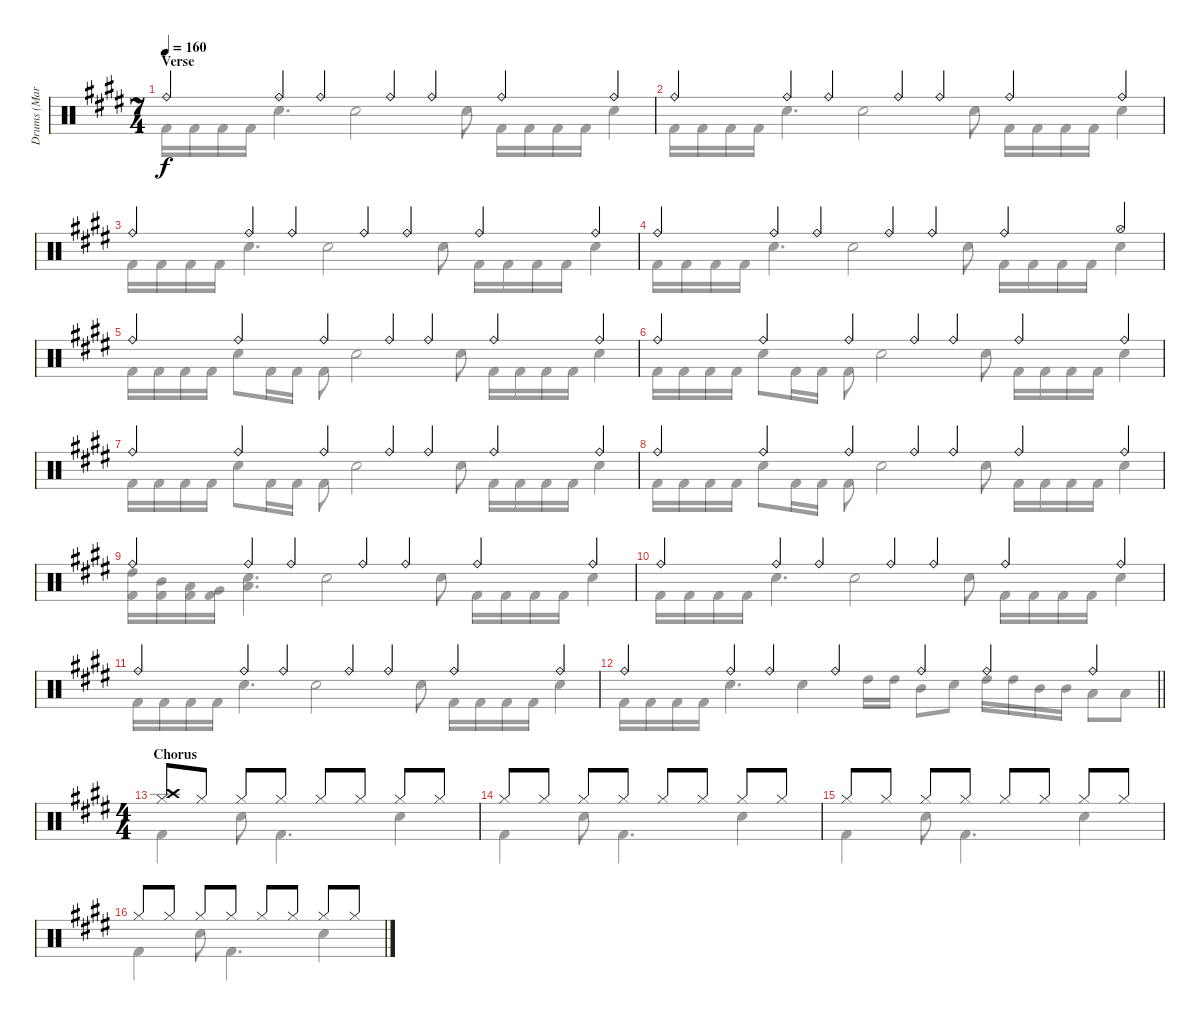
\track ("Drums (Mark Zonder)" "Drums (Mar") {instrument percussion}
\staff {score}
\articulation defaults
\voice
\ts (7 4)
\section ("" "Verse")
\tempo 160
\clef neutral
\ks c#minor "Ride (bell)".4{dy f} "Ride (bell)".4 "Ride (bell)".4 "Ride (bell)".4 "Ride (bell)".4 "Ride (bell)".4 "Ride (bell)".4
|
"Ride (bell)".4 "Ride (bell)".4 "Ride (bell)".4 "Ride (bell)".4 "Ride (bell)".4 "Ride (bell)".4 "Ride (bell)".4 |
"Ride (bell)".4 "Ride (bell)".4 "Ride (bell)".4 "Ride (bell)".4 "Ride (bell)".4 "Ride (bell)".4 "Ride (bell)".4 |
"Ride (bell)".4 "Ride (bell)".4 "Ride (bell)".4 "Ride (bell)".4 "Ride (bell)".4 "Ride (bell)".4 "Hi-Hat (open)".4 |
"Ride (bell)".4 "Ride (bell)".4 "Ride (bell)".4 "Ride (bell)".4 "Ride (bell)".4 "Ride (bell)".4 "Ride (bell)".4 |
"Ride (bell)".4 "Ride (bell)".4 "Ride (bell)".4 "Ride (bell)".4 "Ride (bell)".4 "Ride (bell)".4 "Ride (bell)".4 |
"Ride (bell)".4 "Ride (bell)".4 "Ride (bell)".4 "Ride (bell)".4 "Ride (bell)".4 "Ride (bell)".4 "Ride (bell)".4 |
"Ride (bell)".4 "Ride (bell)".4 "Ride (bell)".4 "Ride (bell)".4 "Ride (bell)".4 "Ride (bell)".4 "Ride (bell)".4 |
"Ride (bell)".4 "Ride (bell)".4 "Ride (bell)".4 "Ride (bell)".4 "Ride (bell)".4 "Ride (bell)".4 "Ride (bell)".4 |
"Ride (bell)".4 "Ride (bell)".4 "Ride (bell)".4 "Ride (bell)".4 "Ride (bell)".4 "Ride (bell)".4 "Ride (bell)".4 |
"Ride (bell)".4 "Ride (bell)".4 "Ride (bell)".4 "Ride (bell)".4 "Ride (bell)".4 "Ride (bell)".4 "Ride (bell)".4 |
\barLineRight lightlight "Ride (bell)".4 "Ride (bell)".4 "Ride (bell)".4 "Ride (bell)".4 "Ride (bell)".4 "Ride (bell)".4 "Ride (bell)".4
|
\ts (4 4)
\section ("" "Chorus")
("Hi-Hat (closed)" "Crash high (hit)").8 "Hi-Hat (closed)".8 "Hi-Hat (closed)".8 "Hi-Hat (closed)".8 "Hi-Hat (closed)".8 "Hi-Hat (closed)".8 "Hi-Hat (closed)".8 "Hi-Hat (closed)".8 |
"Hi-Hat (closed)".8 "Hi-Hat (closed)".8 "Hi-Hat (closed)".8 "Hi-Hat (closed)".8 "Hi-Hat (closed)".8 "Hi-Hat (closed)".8 "Hi-Hat (closed)".8 "Hi-Hat (closed)".8 |
"Hi-Hat (closed)".8 "Hi-Hat (closed)".8 "Hi-Hat (closed)".8 "Hi-Hat (closed)".8 "Hi-Hat (closed)".8 "Hi-Hat (closed)".8 "Hi-Hat (closed)".8 "Hi-Hat (closed)".8 |
"Hi-Hat (closed)".8 "Hi-Hat (closed)".8 "Hi-Hat (closed)".8 "Hi-Hat (closed)".8 "Hi-Hat (closed)".8 "Hi-Hat (closed)".8 "Hi-Hat (closed)".8 "Hi-Hat (closed)".8
\voice
\clef neutral
\ottava regular
\simile none
\ks c#minor "Kick (hit) 2".16{dy f} "Kick (hit) 2".16 "Kick (hit) 2".16 "Kick (hit) 2".16 "Electric Snare (hit)".4{d} "Electric Snare (hit)".2 "Electric Snare (hit)".8 "Kick (hit) 2".16 "Kick (hit) 2".16 "Kick (hit) 2".16 "Kick (hit) 2".16 "Electric Snare (hit)".4
|
"Kick (hit) 2".16 "Kick (hit) 2".16 "Kick (hit) 2".16 "Kick (hit) 2".16 "Electric Snare (hit)".4{d} "Electric Snare (hit)".2 "Electric Snare (hit)".8 "Kick (hit) 2".16 "Kick (hit) 2".16 "Kick (hit) 2".16 "Kick (hit) 2".16 "Electric Snare (hit)".4 |
"Kick (hit) 2".16 "Kick (hit) 2".16 "Kick (hit) 2".16 "Kick (hit) 2".16 "Electric Snare (hit)".4{d} "Electric Snare (hit)".2 "Electric Snare (hit)".8 "Kick (hit) 2".16 "Kick (hit) 2".16 "Kick (hit) 2".16 "Kick (hit) 2".16 "Electric Snare (hit)".4 |
"Kick (hit) 2".16 "Kick (hit) 2".16 "Kick (hit) 2".16 "Kick (hit) 2".16 "Electric Snare (hit)".4{d} "Electric Snare (hit)".2 "Electric Snare (hit)".8 "Kick (hit) 2".16 "Kick (hit) 2".16 "Kick (hit) 2".16 "Kick (hit) 2".16 "Electric Snare (hit)".4 |
"Kick (hit) 2".16 "Kick (hit) 2".16 "Kick (hit) 2".16 "Kick (hit) 2".16 "Electric Snare (hit)".8 "Kick (hit) 2".16 "Kick (hit) 2".16 "Kick (hit) 2".8 "Electric Snare (hit)".2 "Electric Snare (hit)".8 "Kick (hit) 2".16 "Kick (hit) 2".16 "Kick (hit) 2".16 "Kick (hit) 2".16 "Electric Snare (hit)".4 |
"Kick (hit) 2".16 "Kick (hit) 2".16 "Kick (hit) 2".16 "Kick (hit) 2".16 "Electric Snare (hit)".8 "Kick (hit) 2".16 "Kick (hit) 2".16 "Kick (hit) 2".8 "Electric Snare (hit)".2 "Electric Snare (hit)".8 "Kick (hit) 2".16 "Kick (hit) 2".16 "Kick (hit) 2".16 "Kick (hit) 2".16 "Electric Snare (hit)".4 |
"Kick (hit) 2".16 "Kick (hit) 2".16 "Kick (hit) 2".16 "Kick (hit) 2".16 "Electric Snare (hit)".8 "Kick (hit) 2".16 "Kick (hit) 2".16 "Kick (hit) 2".8 "Electric Snare (hit)".2 "Electric Snare (hit)".8 "Kick (hit) 2".16 "Kick (hit) 2".16 "Kick (hit) 2".16 "Kick (hit) 2".16 "Electric Snare (hit)".4 |
"Kick (hit) 2".16 "Kick (hit) 2".16 "Kick (hit) 2".16 "Kick (hit) 2".16 "Electric Snare (hit)".8 "Kick (hit) 2".16 "Kick (hit) 2".16 "Kick (hit) 2".8 "Electric Snare (hit)".2 "Electric Snare (hit)".8 "Kick (hit) 2".16 "Kick (hit) 2".16 "Kick (hit) 2".16 "Kick (hit) 2".16 "Electric Snare (hit)".4 |
("High Tom (hit)" "Kick (hit) 2").16 ("Mid Tom (hit)" "Kick (hit) 2").16 ("Low Tom (hit)" "Kick (hit) 2").16 ("Very Low Tom (hit)" "Kick (hit) 2").16 ("Low Floor Tom (hit)" "Electric Snare (hit)").4{d} "Electric Snare (hit)".2 "Electric Snare (hit)".8 "Kick (hit) 2".16 "Kick (hit) 2".16 "Kick (hit) 2".16 "Kick (hit) 2".16 "Electric Snare (hit)".4 |
"Kick (hit) 2".16 "Kick (hit) 2".16 "Kick (hit) 2".16 "Kick (hit) 2".16 "Electric Snare (hit)".4{d} "Electric Snare (hit)".2 "Electric Snare (hit)".8 "Kick (hit) 2".16 "Kick (hit) 2".16 "Kick (hit) 2".16 "Kick (hit) 2".16 "Electric Snare (hit)".4 |
"Kick (hit) 2".16 "Kick (hit) 2".16 "Kick (hit) 2".16 "Kick (hit) 2".16 "Electric Snare (hit)".4{d} "Electric Snare (hit)".2 "Electric Snare (hit)".8 "Kick (hit) 2".16 "Kick (hit) 2".16 "Kick (hit) 2".16 "Kick (hit) 2".16 "Electric Snare (hit)".4 |
\barLineRight lightlight "Kick (hit) 2".16 "Kick (hit) 2".16 "Kick (hit) 2".16 "Kick (hit) 2".16 "Electric Snare (hit)".4{d} "Electric Snare (hit)".4 "High Tom (hit)".16 "High Tom (hit)".16 "Mid Tom (hit)".8 "Electric Snare (hit)".8 "High Tom (hit)".16 "High Tom (hit)".16 "Mid Tom (hit)".16 "Mid Tom (hit)".16 "Low Tom (hit)".8 "Low Tom (hit)".8
|
"Kick (hit) 2".4 "Electric Snare (hit)".8 "Kick (hit) 2".4{d} "Electric Snare (hit)".4 |
"Kick (hit) 2".4 "Electric Snare (hit)".8 "Kick (hit) 2".4{d} "Electric Snare (hit)".4 |
"Kick (hit) 2".4 "Electric Snare (hit)".8 "Kick (hit) 2".4{d} "Electric Snare (hit)".4 |
"Kick (hit) 2".4 "Electric Snare (hit)".8 "Kick (hit) 2".4{d} "Electric Snare (hit)".4
